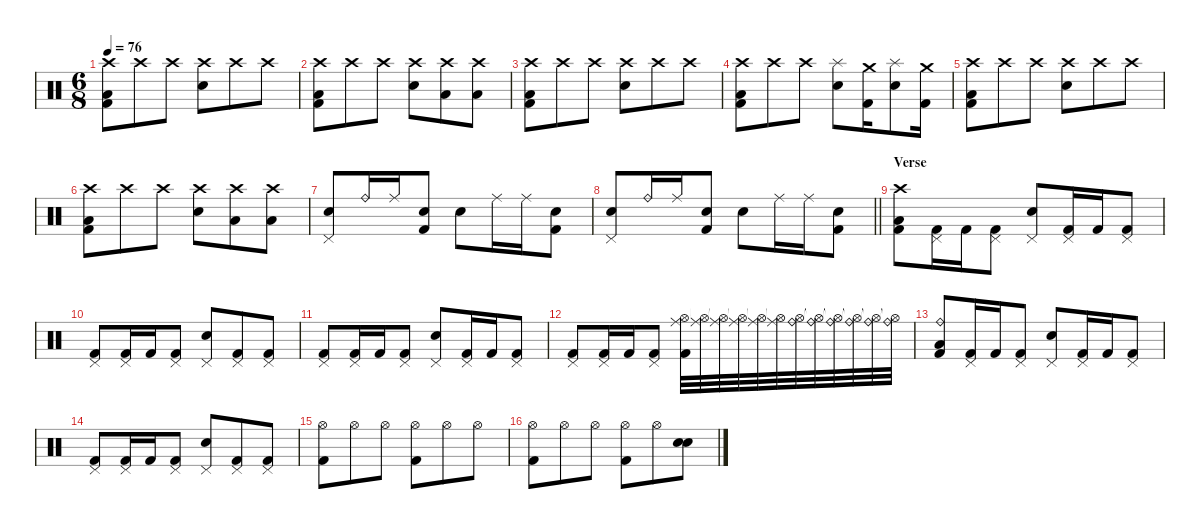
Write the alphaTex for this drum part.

\defaultSystemsLayout 4
\hideDynamics
\bracketExtendMode nobrackets
\singleTrackTrackNamePolicy hidden
\multiTrackTrackNamePolicy hidden
\firstSystemTrackNameMode fullname
\firstSystemTrackNameOrientation horizontal
\otherSystemsTrackNameOrientation horizontal
\track ("Drums" "drm.") {instrument percussion}
\staff {score}
\articulation defaults
\ts (6 8)
\tempo 76
\clef neutral
\ks c
("Crash high (hit)" "Low Floor Tom (hit)" "Kick (hit) 2").8{dy f beam Down} "Crash high (hit)".8{beam Down} "Crash high (hit)".8{beam Down} ("Crash high (hit)" "Snare (hit) 2").8{beam Down} "Crash high (hit)".8{beam Down} "Crash high (hit)".8{beam Down} |
("Crash high (hit)" "Low Floor Tom (hit)" "Kick (hit) 2").8{beam Down} "Crash high (hit)".8{beam Down} "Crash high (hit)".8{beam Down} ("Crash high (hit)" "Snare (hit) 2").8{beam Down} ("Crash high (hit)" "Low Tom (hit)").8{beam Down} ("Crash high (hit)" "Low Tom (hit)").8{beam Down} |
("Crash high (hit)" "Low Floor Tom (hit)" "Kick (hit) 2").8{beam Down} "Crash high (hit)".8{beam Down} "Crash high (hit)".8{beam Down} ("Crash high (hit)" "Snare (hit) 2").8{beam Down} "Crash high (hit)".8{beam Down} "Crash high (hit)".8{beam Down} |
("Crash high (hit)" "Low Floor Tom (hit)" "Kick (hit) 2").8{beam Down} "Crash high (hit)".8{beam Down} "Crash high (hit)".8{beam Down} ("Splash (hit)" "Snare (hit) 2").8{beam Down} ("Crash medium (hit)" "Kick (hit) 2").16{beam Down} ("Splash (hit)" "Snare (hit) 2").8{beam Down} ("Crash medium (hit)" "Kick (hit) 2").16{beam Down} |
("Crash high (hit)" "Low Floor Tom (hit)" "Kick (hit) 2").8{beam Down} "Crash high (hit)".8{beam Down} "Crash high (hit)".8{beam Down} ("Crash high (hit)" "Snare (hit) 2").8{beam Down} "Crash high (hit)".8{beam Down} "Crash high (hit)".8{beam Down} |
("Crash high (hit)" "Low Floor Tom (hit)" "Kick (hit) 2").8{beam Down} "Crash high (hit)".8{beam Down} "Crash high (hit)".8{beam Down} ("Crash high (hit)" "Snare (hit) 2").8{beam Down} ("Crash high (hit)" "Low Tom (hit)").8{beam Down} ("Crash high (hit)" "Low Tom (hit)").8{beam Down} |
("Pedal Hi-Hat (hit)" "Snare (hit) 2").8{beam Up} "Ride (bell)".16{beam Up} "Ride (middle)".16{beam Up} ("Snare (hit) 2" "Kick (hit) 2").8{beam Up} "Snare (hit) 2".8{beam Down} "Ride (middle)".16{beam Down} "Ride (middle)".16{beam Down} ("Snare (hit) 2" "Kick (hit) 2").8{beam Down} |
\barLineRight lightlight
("Pedal Hi-Hat (hit)" "Snare (hit) 2").8{beam Up} "Ride (bell)".16{beam Up} "Ride (middle)".16{beam Up} ("Snare (hit) 2" "Kick (hit) 2").8{beam Up} "Snare (hit) 2".8{beam Down} "Ride (middle)".16{beam Down} "Ride (middle)".16{beam Down} ("Snare (hit) 2" "Kick (hit) 2").8{beam Down} |
\section ("" "Verse")
("Crash high (hit)" "Low Floor Tom (hit)" "Kick (hit) 2").8{beam Down} ("Pedal Hi-Hat (hit)" "Kick (hit) 2").16{beam Down} "Kick (hit) 2".16{beam Down} ("Pedal Hi-Hat (hit)" "Kick (hit) 2").8{beam Down} ("Pedal Hi-Hat (hit)" "Snare (hit) 2").8{beam Up} ("Pedal Hi-Hat (hit)" "Kick (hit) 2").16{beam Up} "Kick (hit) 2".16{beam Up} ("Pedal Hi-Hat (hit)" "Kick (hit) 2").8{beam Up} |
("Pedal Hi-Hat (hit)" "Kick (hit) 2").8{beam Up} ("Pedal Hi-Hat (hit)" "Kick (hit) 2").16{beam Up} "Kick (hit) 2".16{beam Up} ("Pedal Hi-Hat (hit)" "Kick (hit) 2").8{beam Up} ("Pedal Hi-Hat (hit)" "Snare (hit) 2").8{beam Up} ("Pedal Hi-Hat (hit)" "Kick (hit) 2").8{beam Up} ("Pedal Hi-Hat (hit)" "Kick (hit) 2").8{beam Up} |
("Pedal Hi-Hat (hit)" "Kick (hit) 2").8{beam Up} ("Pedal Hi-Hat (hit)" "Kick (hit) 2").16{beam Up} "Kick (hit) 2".16{beam Up} ("Pedal Hi-Hat (hit)" "Kick (hit) 2").8{beam Up} ("Pedal Hi-Hat (hit)" "Snare (hit) 2").8{beam Up} ("Pedal Hi-Hat (hit)" "Kick (hit) 2").16{beam Up} "Kick (hit) 2".16{beam Up} ("Pedal Hi-Hat (hit)" "Kick (hit) 2").8{beam Up} |
("Pedal Hi-Hat (hit)" "Kick (hit) 2").8{beam Up} ("Pedal Hi-Hat (hit)" "Kick (hit) 2").16{beam Up} "Kick (hit) 2".16{beam Up} ("Pedal Hi-Hat (hit)" "Kick (hit) 2").8{beam Up} ("Hi-Hat (open)" "Ride (middle)" "Kick (hit) 2").32{dy mp beam Down} ("Hi-Hat (open)" "Ride (middle)"{t}).32{beam Down} ("Hi-Hat (open)" "Ride (middle)"{t}).32{beam Down} ("Hi-Hat (open)" "Ride (middle)"{t}).32{beam Down} ("Hi-Hat (open)" "Ride (middle)"{t}).32{beam Down} ("Hi-Hat (open)" "Ride (middle)"{t}).32{beam Down} ("Hi-Hat (open)" "Ride (bell)").32{beam Down} ("Hi-Hat (open)" "Ride (bell)"{t}).32{beam Down} ("Hi-Hat (open)" "Ride (bell)"{t}).32{beam Down} ("Hi-Hat (open)" "Ride (bell)"{t}).32{beam Down} ("Hi-Hat (open)" "Ride (bell)"{t}).32{beam Down} ("Hi-Hat (open)" "Ride (bell)"{t}).32{beam Down} |
("Ride (bell)" "Low Floor Tom (hit)" "Kick (hit) 2").8{dy f beam Up} ("Pedal Hi-Hat (hit)" "Kick (hit) 2").16{beam Up} "Kick (hit) 2".16{beam Up} ("Pedal Hi-Hat (hit)" "Kick (hit) 2").8{beam Up} ("Pedal Hi-Hat (hit)" "Snare (hit) 2").8{beam Up} ("Pedal Hi-Hat (hit)" "Kick (hit) 2").16{beam Up} "Kick (hit) 2".16{beam Up} ("Pedal Hi-Hat (hit)" "Kick (hit) 2").8{beam Up} |
("Pedal Hi-Hat (hit)" "Kick (hit) 2").8{beam Up} ("Pedal Hi-Hat (hit)" "Kick (hit) 2").16{beam Up} "Kick (hit) 2".16{beam Up} ("Pedal Hi-Hat (hit)" "Kick (hit) 2").8{beam Up} ("Pedal Hi-Hat (hit)" "Snare (hit) 2").8{beam Up} ("Pedal Hi-Hat (hit)" "Kick (hit) 2").8{beam Up} ("Pedal Hi-Hat (hit)" "Kick (hit) 2").8{beam Up} |
("Hi-Hat (open)" "Kick (hit) 2").8{dy mf beam Down} "Hi-Hat (open)".8{beam Down} "Hi-Hat (open)".8{beam Down} ("Hi-Hat (open)" "Kick (hit) 2").8{beam Down} "Hi-Hat (open)".8{beam Down} "Hi-Hat (open)".8{beam Down} |
("Hi-Hat (open)" "Kick (hit) 2").8{beam Down} "Hi-Hat (open)".8{beam Down} "Hi-Hat (open)".8{beam Down} ("Hi-Hat (open)" "Kick (hit) 2").8{beam Down} "Hi-Hat (open)".8{beam Down} ("Snare (hit) 2" "Snare (hit) 2").8{dy f beam Down}
